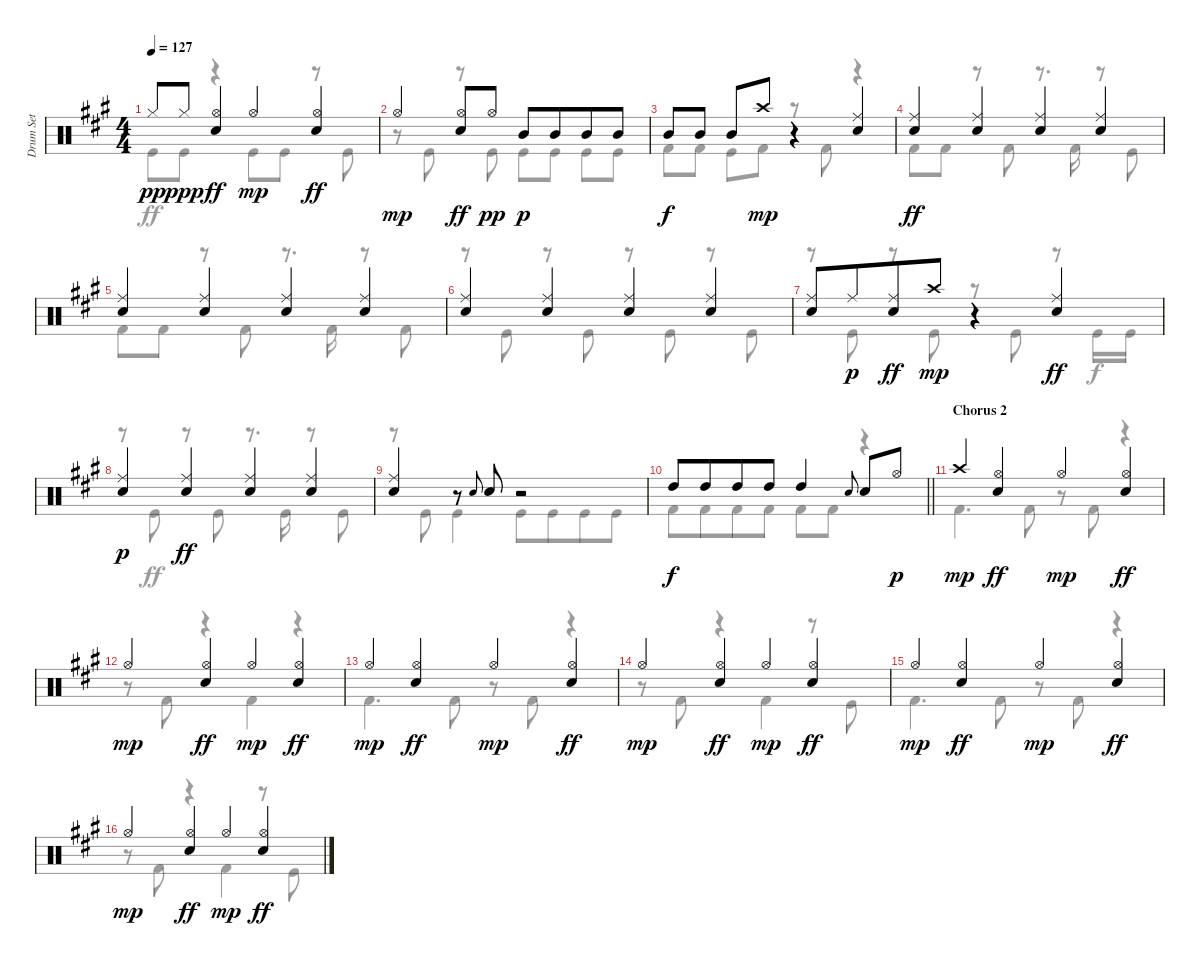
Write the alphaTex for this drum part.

\track ("Drum Set" "Drum Set") {instrument percussion}
\staff {score}
\articulation defaults
\voice
\ts (4 4)
\tempo 127
\clef neutral
\ks a "Hi-Hat (closed)".8{dy pp} "Hi-Hat (closed)".8{dy ppp}
("Hi-Hat (open)" "Electric Snare (hit)").4{dy ff} "Hi-Hat (open)".4{dy mp} ("Hi-Hat (open)" "Electric Snare (hit)").4{dy ff} |
"Hi-Hat (open)".4{dy mp} ("Hi-Hat (open)" "Electric Snare (hit)").8{dy ff} "Hi-Hat (open)".8{dy pp} "Mid Tom (hit)".8{dy p} "Mid Tom (hit)".8{beam merge} "Mid Tom (hit)".8 "Mid Tom (hit)".8 |
"Mid Tom (hit)".8{dy f} "Mid Tom (hit)".8 "Mid Tom (hit)".8 "Crash high (hit)".8{dy mp} r.4 ("Electric Snare (hit)" "Ride (middle)").4 |
("Ride (middle)" "Electric Snare (hit)").4{dy ff} ("Ride (middle)" "Electric Snare (hit)").4 ("Ride (middle)" "Electric Snare (hit)").4 ("Ride (middle)" "Electric Snare (hit)").4 |
("Ride (middle)" "Electric Snare (hit)").4 ("Ride (middle)" "Electric Snare (hit)").4 ("Ride (middle)" "Electric Snare (hit)").4 ("Ride (middle)" "Electric Snare (hit)").4 |
("Ride (middle)" "Electric Snare (hit)").4 ("Ride (middle)" "Electric Snare (hit)").4 ("Ride (middle)" "Electric Snare (hit)").4 ("Ride (middle)" "Electric Snare (hit)").4 |
("Ride (middle)" "Electric Snare (hit)").8 "Ride (middle)".8{dy p beam merge} ("Ride (middle)" "Electric Snare (hit)").8{dy ff} "Crash high (hit)".8{dy mp} r.4 ("Ride (middle)" "Electric Snare (hit)").4{dy ff} |
("Electric Snare (hit)" "Ride (middle)").4{dy p} ("Ride (middle)" "Electric Snare (hit)").4{dy ff} ("Ride (middle)" "Electric Snare (hit)").4 ("Ride (middle)" "Electric Snare (hit)").4 |
("Ride (middle)" "Electric Snare (hit)").4 r.8 "Electric Snare (hit)".8{gr onbeat} "Electric Snare (hit)".8 r.2 |
\barLineRight lightlight "High Tom (hit)".8{dy f} "High Tom (hit)".8{beam merge} "High Tom (hit)".8 "High Tom (hit)".8 "High Tom (hit)".4 "Electric Snare (hit)".8{gr onbeat} "Electric Snare (hit)".8 "Hi-Hat (open)".8{dy p}
|
\section ("" "Chorus 2")
"Crash high (hit)".4{dy mp} ("Hi-Hat (open)" "Electric Snare (hit)").4{dy ff} "Hi-Hat (open)".4{dy mp} ("Hi-Hat (open)" "Electric Snare (hit)").4{dy ff} |
"Hi-Hat (open)".4{dy mp} ("Hi-Hat (open)" "Electric Snare (hit)").4{dy ff} "Hi-Hat (open)".4{dy mp} ("Hi-Hat (open)" "Electric Snare (hit)").4{dy ff} |
"Hi-Hat (open)".4{dy mp} ("Hi-Hat (open)" "Electric Snare (hit)").4{dy ff} "Hi-Hat (open)".4{dy mp} ("Hi-Hat (open)" "Electric Snare (hit)").4{dy ff} |
"Hi-Hat (open)".4{dy mp} ("Hi-Hat (open)" "Electric Snare (hit)").4{dy ff} "Hi-Hat (open)".4{dy mp} ("Hi-Hat (open)" "Electric Snare (hit)").4{dy ff} |
"Hi-Hat (open)".4{dy mp} ("Hi-Hat (open)" "Electric Snare (hit)").4{dy ff} "Hi-Hat (open)".4{dy mp} ("Hi-Hat (open)" "Electric Snare (hit)").4{dy ff} |
"Hi-Hat (open)".4{dy mp} ("Hi-Hat (open)" "Electric Snare (hit)").4{dy ff} "Hi-Hat (open)".4{dy mp} ("Hi-Hat (open)" "Electric Snare (hit)").4{dy ff}
\voice
\clef neutral
\ottava regular
\simile none
\ks a "Kick (hit)".8{dy ff} "Kick (hit)".8
r.4 "Kick (hit)".8 "Kick (hit)".8 r.8 "Kick (hit)".8 |
r.8 "Kick (hit)".8 r.8 "Kick (hit)".8 "Kick (hit)".8 "Kick (hit)".8 "Kick (hit)".8 "Kick (hit)".8 |
"Kick (hit) 2".8 "Kick (hit) 2".8 "Kick (hit)".8 "Kick (hit) 2".8 r.8 "Kick (hit) 2".8 r.4 |
"Kick (hit) 2".8 "Kick (hit) 2".8 r.8 "Kick (hit) 2".8 r.8{d} "Kick (hit) 2".16 r.8 "Kick (hit)".8 |
"Kick (hit) 2".8 "Kick (hit) 2".8 r.8 "Kick (hit) 2".8 r.8{d} "Kick (hit) 2".16 r.8 "Kick (hit) 2".8 |
r.8 "Kick (hit)".8 r.8 "Kick (hit)".8 r.8 "Kick (hit)".8 r.8 "Kick (hit)".8 |
r.8 "Kick (hit)".8 r.8 "Kick (hit)".8 r.8 "Kick (hit)".8 r.8 "Kick (hit)".16{dy f} "Kick (hit)".16 |
r.8 "Kick (hit)".8{dy ff} r.8 "Kick (hit)".8 r.8{d} "Kick (hit)".16 r.8 "Kick (hit)".8 |
r.8 "Kick (hit)".8 "Kick (hit)".4 "Kick (hit)".8 "Kick (hit)".8{beam merge} "Kick (hit)".8 "Kick (hit)".8 |
\barLineRight lightlight "Kick (hit) 2".8 "Kick (hit) 2".8{beam merge} "Kick (hit) 2".8 "Kick (hit) 2".8 "Kick (hit) 2".8 "Kick (hit) 2".8
r.4 |
"Kick (hit) 2".4{d} "Kick (hit) 2".8 r.8 "Kick (hit) 2".8 r.4 |
r.8 "Kick (hit) 2".8 r.4 "Kick (hit) 2".4 r.4 |
"Kick (hit) 2".4{d} "Kick (hit) 2".8 r.8 "Kick (hit) 2".8 r.4 |
r.8 "Kick (hit) 2".8 r.4 "Kick (hit) 2".4 r.8 "Kick (hit)".8 |
"Kick (hit) 2".4{d} "Kick (hit) 2".8 r.8 "Kick (hit) 2".8 r.4 |
r.8 "Kick (hit) 2".8 r.4 "Kick (hit) 2".4 r.8 "Kick (hit)".8
